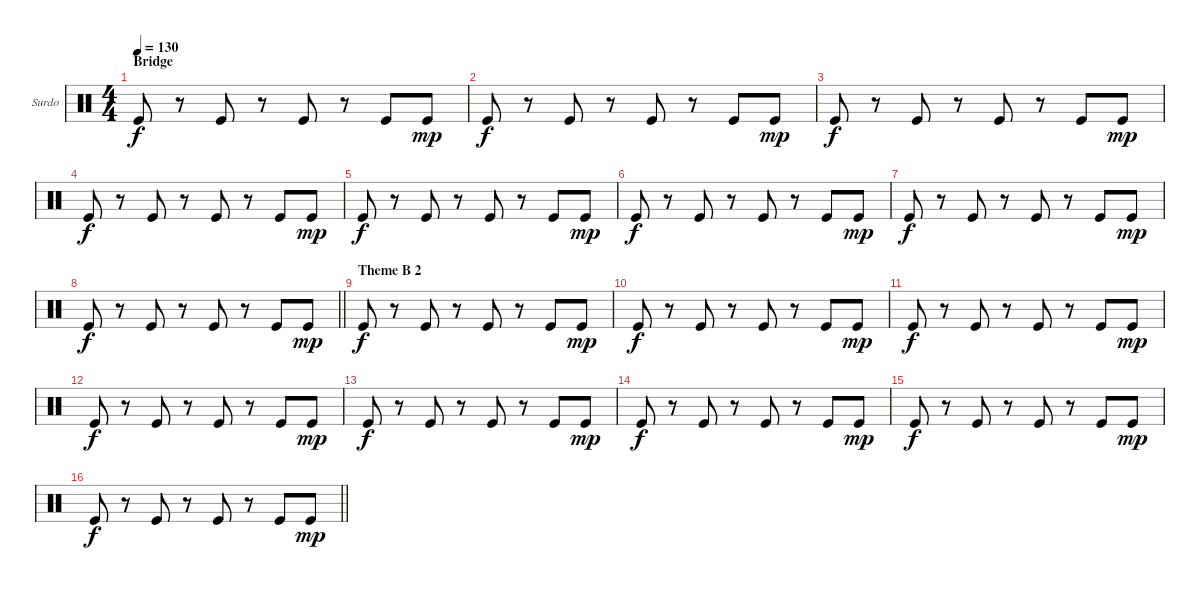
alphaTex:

\bracketExtendMode groupsimilarinstruments
\firstSystemTrackNameOrientation horizontal
\otherSystemsTrackNameOrientation horizontal
\track ("Surdo" "Surdo") {instrument percussion}
\staff {score}
\articulation defaults
\ts (4 4)
\section ("" "Bridge")
\tempo 130
\clef neutral
\ks c "Kick (hit)".8{dy f}
r.8 "Kick (hit)".8 r.8 "Kick (hit)".8 r.8 "Kick (hit)".8 "Kick (hit)".8{dy mp} |
"Kick (hit)".8{dy f} r.8 "Kick (hit)".8 r.8 "Kick (hit)".8 r.8 "Kick (hit)".8 "Kick (hit)".8{dy mp} |
"Kick (hit)".8{dy f} r.8 "Kick (hit)".8 r.8 "Kick (hit)".8 r.8 "Kick (hit)".8 "Kick (hit)".8{dy mp} |
"Kick (hit)".8{dy f} r.8 "Kick (hit)".8 r.8 "Kick (hit)".8 r.8 "Kick (hit)".8 "Kick (hit)".8{dy mp} |
"Kick (hit)".8{dy f} r.8 "Kick (hit)".8 r.8 "Kick (hit)".8 r.8 "Kick (hit)".8 "Kick (hit)".8{dy mp} |
"Kick (hit)".8{dy f} r.8 "Kick (hit)".8 r.8 "Kick (hit)".8 r.8 "Kick (hit)".8 "Kick (hit)".8{dy mp} |
"Kick (hit)".8{dy f} r.8 "Kick (hit)".8 r.8 "Kick (hit)".8 r.8 "Kick (hit)".8 "Kick (hit)".8{dy mp} |
\barLineRight lightlight "Kick (hit)".8{dy f}
r.8 "Kick (hit)".8 r.8 "Kick (hit)".8 r.8 "Kick (hit)".8 "Kick (hit)".8{dy mp} |
\section ("" "Theme B 2")
"Kick (hit)".8{dy f} r.8 "Kick (hit)".8 r.8 "Kick (hit)".8 r.8 "Kick (hit)".8 "Kick (hit)".8{dy mp} |
"Kick (hit)".8{dy f} r.8 "Kick (hit)".8 r.8 "Kick (hit)".8 r.8 "Kick (hit)".8 "Kick (hit)".8{dy mp} |
"Kick (hit)".8{dy f} r.8 "Kick (hit)".8 r.8 "Kick (hit)".8 r.8 "Kick (hit)".8 "Kick (hit)".8{dy mp} |
"Kick (hit)".8{dy f} r.8 "Kick (hit)".8 r.8 "Kick (hit)".8 r.8 "Kick (hit)".8 "Kick (hit)".8{dy mp} |
"Kick (hit)".8{dy f} r.8 "Kick (hit)".8 r.8 "Kick (hit)".8 r.8 "Kick (hit)".8 "Kick (hit)".8{dy mp} |
"Kick (hit)".8{dy f} r.8 "Kick (hit)".8 r.8 "Kick (hit)".8 r.8 "Kick (hit)".8 "Kick (hit)".8{dy mp} |
"Kick (hit)".8{dy f} r.8 "Kick (hit)".8 r.8 "Kick (hit)".8 r.8 "Kick (hit)".8 "Kick (hit)".8{dy mp} |
\barLineRight lightlight "Kick (hit)".8{dy f}
r.8 "Kick (hit)".8 r.8 "Kick (hit)".8 r.8 "Kick (hit)".8 "Kick (hit)".8{dy mp}
